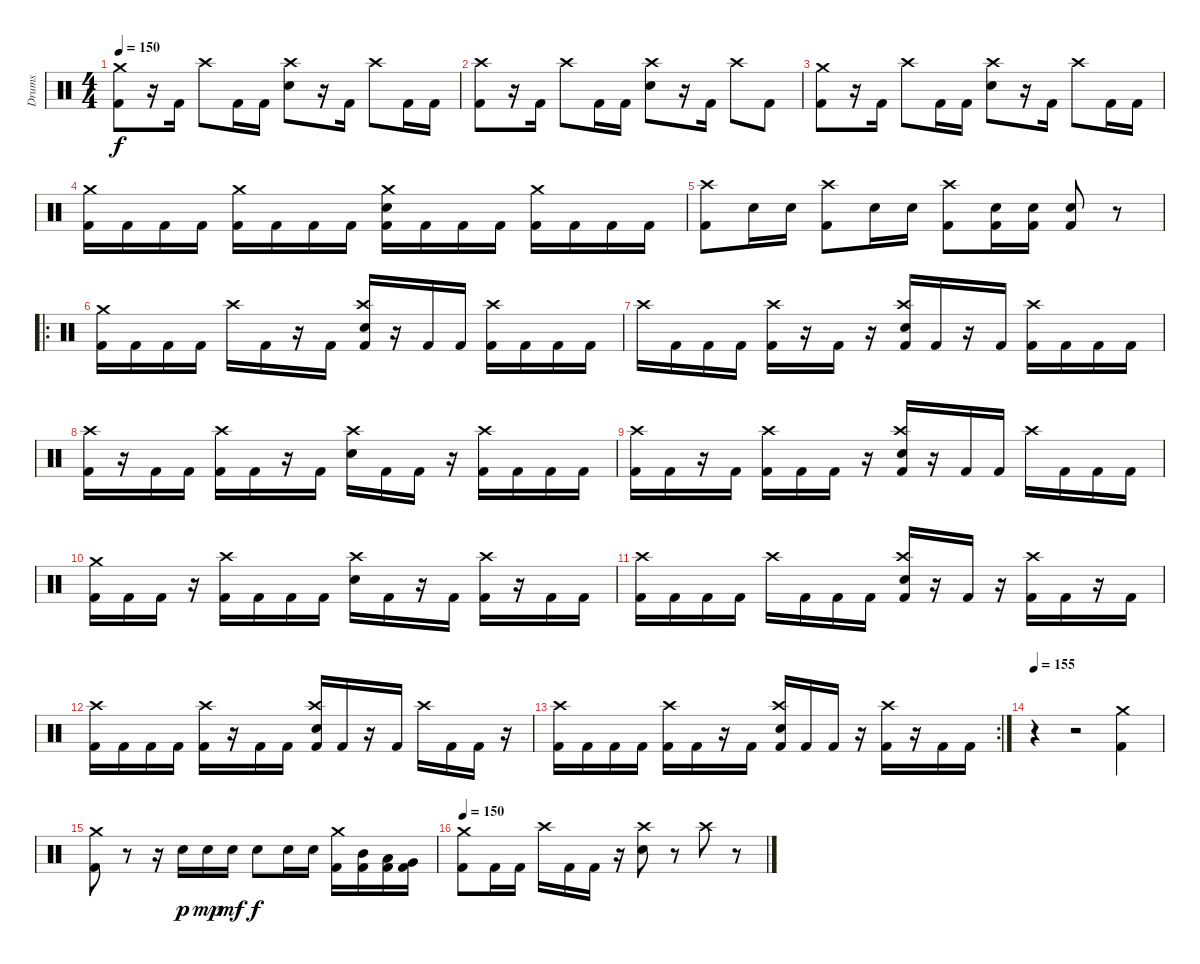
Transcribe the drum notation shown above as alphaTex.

\track ("Drums" "Drums") {instrument percussion}
\staff {score}
\articulation defaults
\ts (4 4)
\tempo 150
\clef neutral
\ks c
("Crash medium (hit)" "Kick (hit) 2").8{dy f} r.16 "Kick (hit) 2".16 "Crash high (hit)".8 "Kick (hit) 2".16 "Kick (hit) 2".16 ("Crash high (hit)" "Electric Snare (hit)").8 r.16 "Kick (hit) 2".16 "Crash high (hit)".8 "Kick (hit) 2".16 "Kick (hit) 2".16 |
("Crash high (hit)" "Kick (hit) 2").8 r.16 "Kick (hit) 2".16 "Crash high (hit)".8 "Kick (hit) 2".16 "Kick (hit) 2".16 ("Crash high (hit)" "Electric Snare (hit)").8 r.16 "Kick (hit) 2".16 "Crash high (hit)".8 "Kick (hit) 2".8 |
("Crash medium (hit)" "Kick (hit) 2").8 r.16 "Kick (hit) 2".16 "Crash high (hit)".8 "Kick (hit) 2".16 "Kick (hit) 2".16 ("Crash high (hit)" "Electric Snare (hit)").8 r.16 "Kick (hit) 2".16 "Crash high (hit)".8 "Kick (hit) 2".16 "Kick (hit) 2".16 |
("Crash medium (hit)" "Kick (hit) 2").16 "Kick (hit) 2".16 "Kick (hit) 2".16 "Kick (hit) 2".16 ("Crash medium (hit)" "Kick (hit) 2").16 "Kick (hit) 2".16 "Kick (hit) 2".16 "Kick (hit) 2".16 ("Crash medium (hit)" "Electric Snare (hit)" "Kick (hit) 2").16 "Kick (hit) 2".16 "Kick (hit) 2".16 "Kick (hit) 2".16 ("Crash medium (hit)" "Kick (hit) 2").16 "Kick (hit) 2".16 "Kick (hit) 2".16 "Kick (hit) 2".16 |
("Crash high (hit)" "Kick (hit) 2").8 "Electric Snare (hit)".16 "Electric Snare (hit)".16 ("Crash high (hit)" "Kick (hit) 2").8 "Electric Snare (hit)".16 "Electric Snare (hit)".16 ("Crash high (hit)" "Kick (hit) 2").8 ("Electric Snare (hit)" "Kick (hit) 2").16 ("Electric Snare (hit)" "Kick (hit) 2").16 ("Electric Snare (hit)" "Kick (hit) 2").8 r.8 |
\ro
("Crash medium (hit)" "Kick (hit) 2").16 "Kick (hit) 2".16 "Kick (hit) 2".16 "Kick (hit) 2".16 "Crash high (hit)".16 "Kick (hit) 2".16 r.16 "Kick (hit) 2".16 ("Crash high (hit)" "Electric Snare (hit)" "Kick (hit) 2").16 r.16 "Kick (hit) 2".16 "Kick (hit) 2".16 ("Crash high (hit)" "Kick (hit) 2").16 "Kick (hit) 2".16 "Kick (hit) 2".16 "Kick (hit) 2".16 |
"Crash high (hit)".16 "Kick (hit) 2".16 "Kick (hit) 2".16 "Kick (hit) 2".16 ("Crash high (hit)" "Kick (hit) 2").16 r.16 "Kick (hit) 2".16 r.16 ("Crash high (hit)" "Electric Snare (hit)" "Kick (hit) 2").16 "Kick (hit) 2".16 r.16 "Kick (hit) 2".16 ("Crash high (hit)" "Kick (hit) 2").16 "Kick (hit) 2".16 "Kick (hit) 2".16 "Kick (hit) 2".16 |
("Crash high (hit)" "Kick (hit) 2").16 r.16 "Kick (hit) 2".16 "Kick (hit) 2".16 ("Crash high (hit)" "Kick (hit) 2").16 "Kick (hit) 2".16 r.16 "Kick (hit) 2".16 ("Crash high (hit)" "Electric Snare (hit)").16 "Kick (hit) 2".16 "Kick (hit) 2".16 r.16 ("Crash high (hit)" "Kick (hit) 2").16 "Kick (hit) 2".16 "Kick (hit) 2".16 "Kick (hit) 2".16 |
("Crash high (hit)" "Kick (hit) 2").16 "Kick (hit) 2".16 r.16 "Kick (hit) 2".16 ("Crash high (hit)" "Kick (hit) 2").16 "Kick (hit) 2".16 "Kick (hit) 2".16 r.16 ("Crash high (hit)" "Electric Snare (hit)" "Kick (hit) 2").16 r.16 "Kick (hit) 2".16 "Kick (hit) 2".16 "Crash high (hit)".16 "Kick (hit) 2".16 "Kick (hit) 2".16 "Kick (hit) 2".16 |
("Crash medium (hit)" "Kick (hit) 2").16 "Kick (hit) 2".16 "Kick (hit) 2".16 r.16 ("Crash high (hit)" "Kick (hit) 2").16 "Kick (hit) 2".16 "Kick (hit) 2".16 "Kick (hit) 2".16 ("Crash high (hit)" "Electric Snare (hit)").16 "Kick (hit) 2".16 r.16 "Kick (hit) 2".16 ("Crash high (hit)" "Kick (hit) 2").16 r.16 "Kick (hit) 2".16 "Kick (hit) 2".16 |
("Crash high (hit)" "Kick (hit) 2").16 "Kick (hit) 2".16 "Kick (hit) 2".16 "Kick (hit) 2".16 "Crash high (hit)".16 "Kick (hit) 2".16 "Kick (hit) 2".16 "Kick (hit) 2".16 ("Crash high (hit)" "Electric Snare (hit)" "Kick (hit) 2").16 r.16 "Kick (hit) 2".16 r.16 ("Crash high (hit)" "Kick (hit) 2").16 "Kick (hit) 2".16 r.16 "Kick (hit) 2".16 |
("Crash high (hit)" "Kick (hit) 2").16 "Kick (hit) 2".16 "Kick (hit) 2".16 "Kick (hit) 2".16 ("Crash high (hit)" "Kick (hit) 2").16 r.16 "Kick (hit) 2".16 "Kick (hit) 2".16 ("Crash high (hit)" "Electric Snare (hit)" "Kick (hit) 2").16 "Kick (hit) 2".16 r.16 "Kick (hit) 2".16 "Crash high (hit)".16 "Kick (hit) 2".16 "Kick (hit) 2".16 r.16 |
\rc 2
("Crash high (hit)" "Kick (hit) 2").16 "Kick (hit) 2".16 "Kick (hit) 2".16 "Kick (hit) 2".16 ("Crash high (hit)" "Kick (hit) 2").16 "Kick (hit) 2".16 r.16 "Kick (hit) 2".16 ("Crash high (hit)" "Electric Snare (hit)" "Kick (hit) 2").16 "Kick (hit) 2".16 "Kick (hit) 2".16 r.16 ("Crash high (hit)" "Kick (hit) 2").16 r.16 "Kick (hit) 2".16 "Kick (hit) 2".16 |
\tempo 155
r.4 r.2 ("Crash medium (hit)" "Kick (hit) 2").4 |
("Crash medium (hit)" "Kick (hit) 2").8 r.8 r.16 "Electric Snare (hit)".16{dy p} "Electric Snare (hit)".16{dy mp} "Electric Snare (hit)".16{dy mf} "Electric Snare (hit)".8{dy f} "Electric Snare (hit)".16 "Electric Snare (hit)".16 ("Crash medium (hit)" "Kick (hit) 2").16 ("Mid Tom (hit)" "Kick (hit) 2").16 ("Low Tom (hit)" "Kick (hit) 2").16 ("Very Low Tom (hit)" "Kick (hit) 2").16 |
\tempo 150
("Crash medium (hit)" "Kick (hit) 2").8 "Kick (hit) 2".16 "Kick (hit) 2".16 "Crash high (hit)".16 "Kick (hit) 2".16 "Kick (hit) 2".16 r.16 ("Crash high (hit)" "Electric Snare (hit)").8 r.8 "Crash high (hit)".8 r.8
